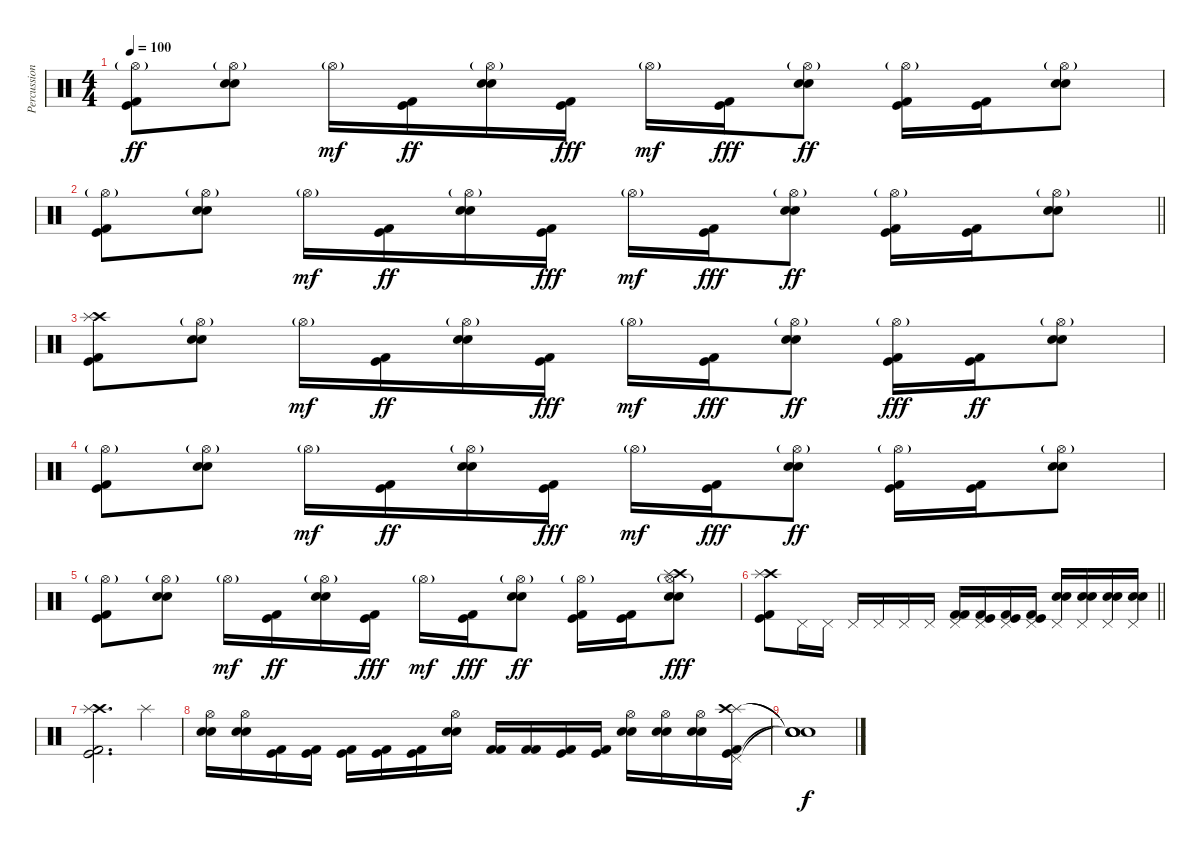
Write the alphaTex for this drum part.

\track ("Percussion" "Percussion") {instrument percussion}
\staff {score}
\articulation defaults
\ts (4 4)
\tempo 100
\clef neutral
\ks c
("Hi-Hat (open)"{g} "Kick (hit)" "Kick (hit) 2").8{dy ff} ("Hi-Hat (open)"{g} "Electric Snare (hit)" "Snare (hit) 2").8 "Hi-Hat (open)"{g}.16{dy mf} ("Kick (hit)" "Kick (hit) 2").16{dy ff} ("Hi-Hat (open)"{g} "Electric Snare (hit)" "Snare (hit) 2").16 ("Kick (hit)" "Kick (hit) 2").16{dy fff} "Hi-Hat (open)"{g}.16{dy mf} ("Kick (hit)" "Kick (hit) 2").16{dy fff} ("Hi-Hat (open)"{g} "Electric Snare (hit)" "Snare (hit) 2").8{dy ff} ("Hi-Hat (open)"{g} "Kick (hit)" "Kick (hit) 2").16 ("Kick (hit)" "Kick (hit) 2").16 ("Hi-Hat (open)"{g} "Electric Snare (hit)" "Snare (hit) 2").8 |
\barLineRight lightlight
("Hi-Hat (open)"{g} "Kick (hit)" "Kick (hit) 2").8 ("Hi-Hat (open)"{g} "Electric Snare (hit)" "Snare (hit) 2").8 "Hi-Hat (open)"{g}.16{dy mf} ("Kick (hit)" "Kick (hit) 2").16{dy ff} ("Hi-Hat (open)"{g} "Electric Snare (hit)" "Snare (hit) 2").16 ("Kick (hit)" "Kick (hit) 2").16{dy fff} "Hi-Hat (open)"{g}.16{dy mf} ("Kick (hit)" "Kick (hit) 2").16{dy fff} ("Hi-Hat (open)"{g} "Electric Snare (hit)" "Snare (hit) 2").8{dy ff} ("Hi-Hat (open)"{g} "Kick (hit)" "Kick (hit) 2").16 ("Kick (hit)" "Kick (hit) 2").16 ("Hi-Hat (open)"{g} "Electric Snare (hit)" "Snare (hit) 2").8 |
("Crash high (hit)" "Splash (hit)" "Kick (hit)" "Kick (hit) 2").8 ("Hi-Hat (open)"{g} "Electric Snare (hit)" "Snare (hit) 2").8 "Hi-Hat (open)"{g}.16{dy mf} ("Kick (hit)" "Kick (hit) 2").16{dy ff} ("Hi-Hat (open)"{g} "Electric Snare (hit)" "Snare (hit) 2").16 ("Kick (hit)" "Kick (hit) 2").16{dy fff} "Hi-Hat (open)"{g}.16{dy mf} ("Kick (hit)" "Kick (hit) 2").16{dy fff} ("Hi-Hat (open)"{g} "Electric Snare (hit)" "Snare (hit) 2").8{dy ff} ("Hi-Hat (open)"{g} "Kick (hit)" "Kick (hit) 2").16{dy fff} ("Kick (hit)" "Kick (hit) 2").16{dy ff} ("Hi-Hat (open)"{g} "Electric Snare (hit)" "Snare (hit) 2").8 |
("Hi-Hat (open)"{g} "Kick (hit)" "Kick (hit) 2").8 ("Hi-Hat (open)"{g} "Electric Snare (hit)" "Snare (hit) 2").8 "Hi-Hat (open)"{g}.16{dy mf} ("Kick (hit)" "Kick (hit) 2").16{dy ff} ("Hi-Hat (open)"{g} "Electric Snare (hit)" "Snare (hit) 2").16 ("Kick (hit)" "Kick (hit) 2").16{dy fff} "Hi-Hat (open)"{g}.16{dy mf} ("Kick (hit)" "Kick (hit) 2").16{dy fff} ("Hi-Hat (open)"{g} "Electric Snare (hit)" "Snare (hit) 2").8{dy ff} ("Hi-Hat (open)"{g} "Kick (hit)" "Kick (hit) 2").16 ("Kick (hit)" "Kick (hit) 2").16 ("Hi-Hat (open)"{g} "Electric Snare (hit)" "Snare (hit) 2").8 |
("Hi-Hat (open)"{g} "Kick (hit)" "Kick (hit) 2").8 ("Hi-Hat (open)"{g} "Electric Snare (hit)" "Snare (hit) 2").8 "Hi-Hat (open)"{g}.16{dy mf} ("Kick (hit)" "Kick (hit) 2").16{dy ff} ("Hi-Hat (open)"{g} "Electric Snare (hit)" "Snare (hit) 2").16 ("Kick (hit)" "Kick (hit) 2").16{dy fff} "Hi-Hat (open)"{g}.16{dy mf} ("Kick (hit)" "Kick (hit) 2").16{dy fff} ("Hi-Hat (open)"{g} "Electric Snare (hit)" "Snare (hit) 2").8{dy ff} ("Hi-Hat (open)"{g} "Kick (hit)" "Kick (hit) 2").16 ("Kick (hit)" "Kick (hit) 2").16 ("Hi-Hat (open)"{g} "Electric Snare (hit)" "Snare (hit) 2" "Crash high (hit)" "Splash (hit)").8{dy fff} |
\barLineRight lightlight
("Crash high (hit)" "Splash (hit)" "Kick (hit)" "Kick (hit) 2").8 "Pedal Hi-Hat (hit)".16 "Pedal Hi-Hat (hit)".16 "Pedal Hi-Hat (hit)".16 "Pedal Hi-Hat (hit)".16 "Pedal Hi-Hat (hit)".16 "Pedal Hi-Hat (hit)".16 ("Pedal Hi-Hat (hit)" "Kick (hit) 2" "Kick (hit) 2").16 ("Pedal Hi-Hat (hit)" "Kick (hit)" "Kick (hit) 2").16 ("Pedal Hi-Hat (hit)" "Kick (hit)" "Kick (hit) 2").16 ("Pedal Hi-Hat (hit)" "Kick (hit)" "Kick (hit) 2").16 ("Electric Snare (hit)" "Snare (hit) 2" "Pedal Hi-Hat (hit)").16 ("Electric Snare (hit)" "Snare (hit) 2" "Pedal Hi-Hat (hit)").16 ("Electric Snare (hit)" "Snare (hit) 2" "Pedal Hi-Hat (hit)").16 ("Electric Snare (hit)" "Snare (hit) 2" "Pedal Hi-Hat (hit)").16 |
("Crash high (hit)" "Splash (hit)" "Kick (hit)" "Kick (hit) 2").2{d} "Splash (hit)".4 |
("Hi-Hat (open)" "Electric Snare (hit)" "Snare (hit) 2").16 ("Hi-Hat (open)" "Electric Snare (hit)" "Snare (hit) 2").16 ("Kick (hit)" "Kick (hit) 2").16 ("Kick (hit)" "Kick (hit) 2").16 ("Kick (hit)" "Kick (hit) 2").16 ("Kick (hit)" "Kick (hit) 2").16 ("Kick (hit)" "Kick (hit) 2").16 ("Hi-Hat (open)" "Electric Snare (hit)" "Snare (hit) 2").16 ("Kick (hit) 2" "Kick (hit) 2").16 ("Kick (hit) 2" "Kick (hit) 2").16 ("Kick (hit)" "Kick (hit) 2").16 ("Kick (hit)" "Kick (hit) 2").16 ("Hi-Hat (open)" "Electric Snare (hit)" "Snare (hit) 2").16 ("Hi-Hat (open)" "Electric Snare (hit)" "Snare (hit) 2").16 ("Hi-Hat (open)" "Electric Snare (hit)" "Snare (hit) 2").16 ("Splash (hit)" "Crash high (hit)" "Pedal Hi-Hat (hit)" "Kick (hit)" "Kick (hit) 2").16 |
("Snare (hit)"{t} "Snare (hit)"{t} "Snare (hit)"{t} "Snare (hit)"{t}).1{dy f}
